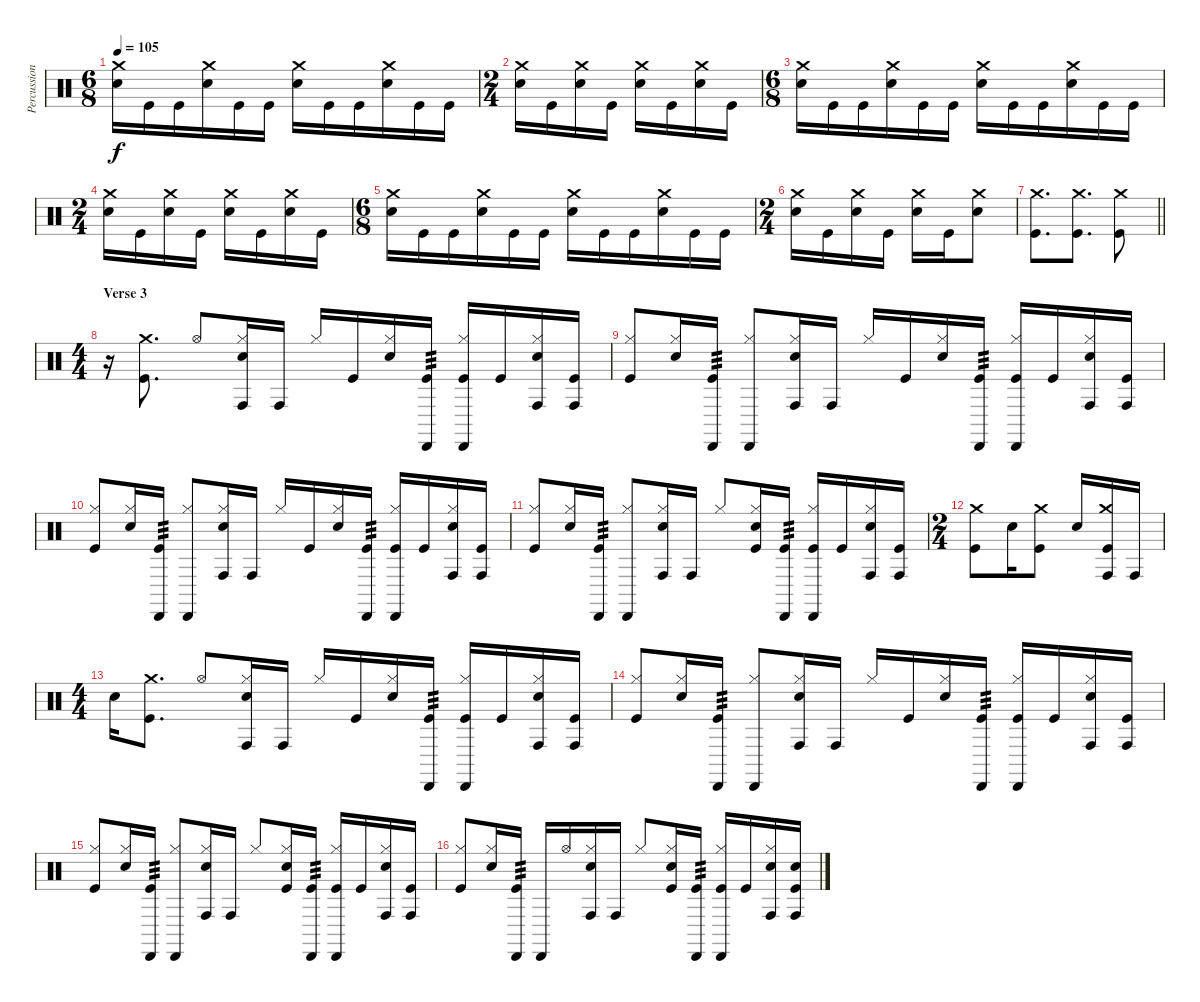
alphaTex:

\track ("Percussion" "Percussion") {instrument percussion}
\staff {score}
\articulation defaults
\ts (6 8)
\tempo 105
\clef neutral
\ks c
("Crash medium (hit)" "Snare (hit) 2").16{dy f} "Kick (hit)".16 "Kick (hit)".16 ("Crash medium (hit)" "Snare (hit) 2").16 "Kick (hit)".16 "Kick (hit)".16 ("Crash medium (hit)" "Snare (hit) 2").16 "Kick (hit)".16 "Kick (hit)".16 ("Crash medium (hit)" "Snare (hit) 2").16 "Kick (hit)".16 "Kick (hit)".16 |
\ts (2 4)
("Crash medium (hit)" "Snare (hit) 2").16 "Kick (hit)".16 ("Crash medium (hit)" "Snare (hit) 2").16 "Kick (hit)".16 ("Crash medium (hit)" "Snare (hit) 2").16 "Kick (hit)".16 ("Crash medium (hit)" "Snare (hit) 2").16 "Kick (hit)".16 |
\ts (6 8)
("Crash medium (hit)" "Snare (hit) 2").16 "Kick (hit)".16 "Kick (hit)".16 ("Crash medium (hit)" "Snare (hit) 2").16 "Kick (hit)".16 "Kick (hit)".16 ("Crash medium (hit)" "Snare (hit) 2").16 "Kick (hit)".16 "Kick (hit)".16 ("Crash medium (hit)" "Snare (hit) 2").16 "Kick (hit)".16 "Kick (hit)".16 |
\ts (2 4)
("Crash medium (hit)" "Snare (hit) 2").16 "Kick (hit)".16 ("Crash medium (hit)" "Snare (hit) 2").16 "Kick (hit)".16 ("Crash medium (hit)" "Snare (hit) 2").16 "Kick (hit)".16 ("Crash medium (hit)" "Snare (hit) 2").16 "Kick (hit)".16 |
\ts (6 8)
("Crash medium (hit)" "Snare (hit) 2").16 "Kick (hit)".16 "Kick (hit)".16 ("Crash medium (hit)" "Snare (hit) 2").16 "Kick (hit)".16 "Kick (hit)".16 ("Crash medium (hit)" "Snare (hit) 2").16 "Kick (hit)".16 "Kick (hit)".16 ("Crash medium (hit)" "Snare (hit) 2").16 "Kick (hit)".16 "Kick (hit)".16 |
\ts (2 4)
("Crash medium (hit)" "Snare (hit) 2").16 "Kick (hit)".16 ("Crash medium (hit)" "Snare (hit) 2").16 "Kick (hit)".16 ("Crash medium (hit)" "Snare (hit) 2").16 "Kick (hit)".16 ("Crash medium (hit)" "Snare (hit) 2").8 |
\barLineRight lightlight
("Crash medium (hit)" "Kick (hit)").8{d} ("Crash medium (hit)" "Kick (hit)").8{d} ("Crash medium (hit)" "Kick (hit)").8 |
\ts (4 4)
\section ("" "Verse 3")
r.16 ("Crash medium (hit)" "Kick (hit)").8{d} "Hi-Hat (open)".8 ("Hi-Hat (closed)" "Snare (hit) 2" "Conga high (hit)").16 "Conga high (hit)".16 "Hi-Hat (closed)".16 "Kick (hit)".16 ("Hi-Hat (closed)" "Snare (hit) 2").16 ("Cabasa (hit)" "Kick (hit)").16{tp 3} ("Hi-Hat (closed)" "Cabasa (hit)" "Kick (hit)").16 "Kick (hit)".16 ("Hi-Hat (closed)" "Snare (hit) 2" "Conga high (hit)").16 ("Conga high (hit)" "Kick (hit)").16 |
("Hi-Hat (closed)" "Kick (hit)").8 ("Hi-Hat (closed)" "Snare (hit) 2").16 ("Cabasa (hit)" "Kick (hit)").16{tp 3} ("Hi-Hat (closed)" "Cabasa (hit)").8 ("Hi-Hat (closed)" "Snare (hit) 2" "Conga high (hit)").16 "Conga high (hit)".16 "Hi-Hat (closed)".16 "Kick (hit)".16 ("Hi-Hat (closed)" "Snare (hit) 2").16 ("Cabasa (hit)" "Kick (hit)").16{tp 3} ("Hi-Hat (closed)" "Cabasa (hit)" "Kick (hit)").16 "Kick (hit)".16 ("Hi-Hat (closed)" "Snare (hit) 2" "Conga high (hit)").16 ("Conga high (hit)" "Kick (hit)").16 |
("Hi-Hat (closed)" "Kick (hit)").8 ("Hi-Hat (closed)" "Snare (hit) 2").16 ("Cabasa (hit)" "Kick (hit)").16{tp 3} ("Hi-Hat (closed)" "Cabasa (hit)").8 ("Hi-Hat (closed)" "Snare (hit) 2" "Conga high (hit)").16 "Conga high (hit)".16 "Hi-Hat (closed)".16 "Kick (hit)".16 ("Hi-Hat (closed)" "Snare (hit) 2").16 ("Cabasa (hit)" "Kick (hit)").16{tp 3} ("Hi-Hat (closed)" "Cabasa (hit)" "Kick (hit)").16 "Kick (hit)".16 ("Hi-Hat (closed)" "Snare (hit) 2" "Conga high (hit)").16 ("Conga high (hit)" "Kick (hit)").16 |
("Hi-Hat (closed)" "Kick (hit)").8 ("Hi-Hat (closed)" "Snare (hit) 2").16 ("Cabasa (hit)" "Kick (hit)").16{tp 3} ("Hi-Hat (closed)" "Cabasa (hit)").8 ("Hi-Hat (closed)" "Snare (hit) 2" "Conga high (hit)").16 "Conga high (hit)".16 "Hi-Hat (closed)".8 ("Hi-Hat (closed)" "Snare (hit) 2" "Kick (hit)").16 ("Cabasa (hit)" "Kick (hit)").16{tp 3} ("Hi-Hat (closed)" "Cabasa (hit)" "Kick (hit)").16 "Kick (hit)".16 ("Hi-Hat (closed)" "Snare (hit) 2" "Conga high (hit)").16 ("Conga high (hit)" "Kick (hit)").16 |
\ts (2 4)
("Crash medium (hit)" "Kick (hit)").8 "Snare (hit) 2".16 ("Crash medium (hit)" "Kick (hit)").8 "Snare (hit) 2".16 ("Crash medium (hit)" "Conga high (hit)" "Kick (hit)").16 "Conga high (hit)".16 |
\ts (4 4)
"Snare (hit) 2".16 ("Crash medium (hit)" "Kick (hit)").8{d} "Hi-Hat (open)".8 ("Hi-Hat (closed)" "Snare (hit) 2" "Conga high (hit)").16 "Conga high (hit)".16 "Hi-Hat (closed)".16 "Kick (hit)".16 ("Hi-Hat (closed)" "Snare (hit) 2").16 ("Cabasa (hit)" "Kick (hit)").16{tp 3} ("Hi-Hat (closed)" "Cabasa (hit)" "Kick (hit)").16 "Kick (hit)".16 ("Hi-Hat (closed)" "Snare (hit) 2" "Conga high (hit)").16 ("Conga high (hit)" "Kick (hit)").16 |
("Hi-Hat (closed)" "Kick (hit)").8 ("Hi-Hat (closed)" "Snare (hit) 2").16 ("Cabasa (hit)" "Kick (hit)").16{tp 3} ("Hi-Hat (closed)" "Cabasa (hit)").8 ("Hi-Hat (closed)" "Snare (hit) 2" "Conga high (hit)").16 "Conga high (hit)".16 "Hi-Hat (closed)".16 "Kick (hit)".16 ("Hi-Hat (closed)" "Snare (hit) 2").16 ("Cabasa (hit)" "Kick (hit)").16{tp 3} ("Hi-Hat (closed)" "Cabasa (hit)" "Kick (hit)").16 "Kick (hit)".16 ("Hi-Hat (closed)" "Snare (hit) 2" "Conga high (hit)").16 ("Conga high (hit)" "Kick (hit)").16 |
("Hi-Hat (closed)" "Kick (hit)").8 ("Hi-Hat (closed)" "Snare (hit) 2").16 ("Cabasa (hit)" "Kick (hit)").16{tp 3} ("Hi-Hat (closed)" "Cabasa (hit)").8 ("Hi-Hat (closed)" "Snare (hit) 2" "Conga high (hit)").16 "Conga high (hit)".16 "Hi-Hat (closed)".8 ("Hi-Hat (closed)" "Snare (hit) 2" "Kick (hit)").16 ("Cabasa (hit)" "Kick (hit)").16{tp 3} ("Hi-Hat (closed)" "Cabasa (hit)" "Kick (hit)").16 "Kick (hit)".16 ("Hi-Hat (closed)" "Snare (hit) 2" "Conga high (hit)").16 ("Conga high (hit)" "Kick (hit)").16 |
("Hi-Hat (closed)" "Kick (hit)").8 ("Hi-Hat (closed)" "Snare (hit) 2").16 ("Cabasa (hit)" "Kick (hit)").16{tp 3} "Cabasa (hit)".16 "Hi-Hat (open)".16 ("Hi-Hat (closed)" "Snare (hit) 2" "Conga high (hit)").16 "Conga high (hit)".16 "Hi-Hat (closed)".8 ("Hi-Hat (closed)" "Snare (hit) 2" "Kick (hit)").16 ("Cabasa (hit)" "Kick (hit)").16{tp 3} ("Hi-Hat (closed)" "Cabasa (hit)" "Kick (hit)").16 "Kick (hit)".16 ("Hi-Hat (closed)" "Snare (hit) 2" "Conga high (hit)").16 ("Snare (hit) 2" "Conga high (hit)" "Kick (hit)").16
